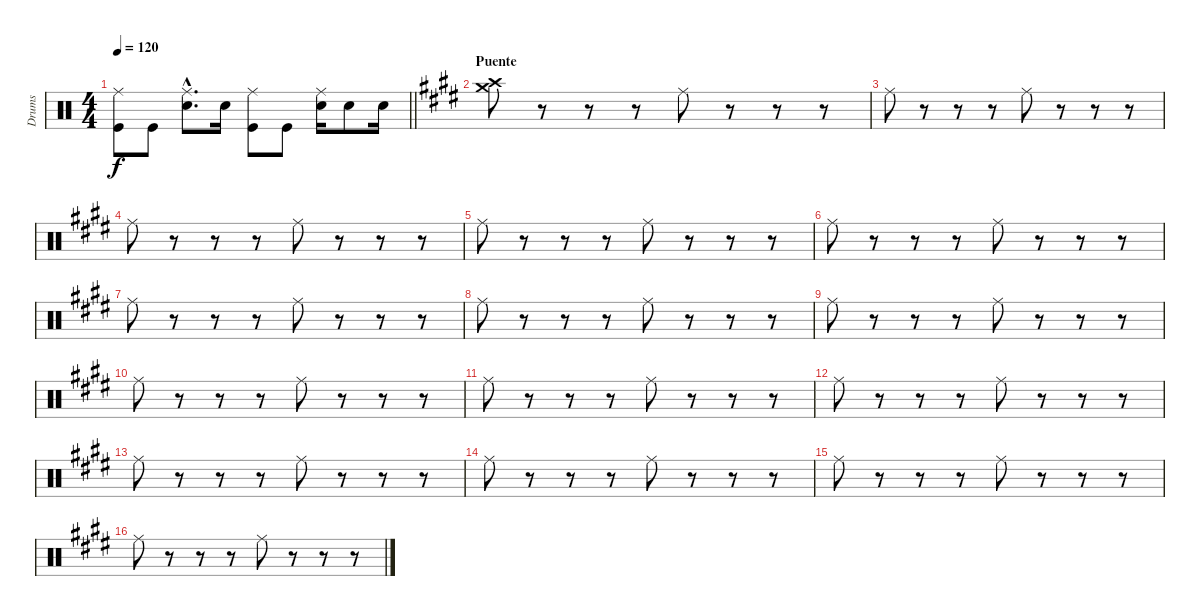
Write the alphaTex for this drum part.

\track ("Drums" "Drums") {instrument percussion}
\staff {score}
\articulation defaults
\ts (4 4)
\tempo 120
\clef neutral
\barLineRight lightlight
\ks c
("Ride (middle)" "Kick (hit)").8{dy f} "Kick (hit)".8 ("Ride (middle)"{hac} "Electric Snare (hit)"{hac}).8{d} "Electric Snare (hit)".16 ("Ride (middle)" "Kick (hit)").8 "Kick (hit)".8 ("Ride (middle)" "Electric Snare (hit)").16 "Electric Snare (hit)".8 "Electric Snare (hit)".16 |
\section ("" "Puente")
\ks e
("Crash medium (hit)" "Crash high (hit)").8 r.8 r.8 r.8 "Ride (middle)".8 r.8 r.8 r.8 |
"Ride (middle)".8 r.8 r.8 r.8 "Ride (middle)".8 r.8 r.8 r.8 |
"Ride (middle)".8 r.8 r.8 r.8 "Ride (middle)".8 r.8 r.8 r.8 |
"Ride (middle)".8 r.8 r.8 r.8 "Ride (middle)".8 r.8 r.8 r.8 |
"Ride (middle)".8 r.8 r.8 r.8 "Ride (middle)".8 r.8 r.8 r.8 |
"Ride (middle)".8 r.8 r.8 r.8 "Ride (middle)".8 r.8 r.8 r.8 |
"Ride (middle)".8 r.8 r.8 r.8 "Ride (middle)".8 r.8 r.8 r.8 |
"Ride (middle)".8 r.8 r.8 r.8 "Ride (middle)".8 r.8 r.8 r.8 |
"Ride (middle)".8 r.8 r.8 r.8 "Ride (middle)".8 r.8 r.8 r.8 |
"Ride (middle)".8 r.8 r.8 r.8 "Ride (middle)".8 r.8 r.8 r.8 |
"Ride (middle)".8 r.8 r.8 r.8 "Ride (middle)".8 r.8 r.8 r.8 |
"Ride (middle)".8 r.8 r.8 r.8 "Ride (middle)".8 r.8 r.8 r.8 |
"Ride (middle)".8 r.8 r.8 r.8 "Ride (middle)".8 r.8 r.8 r.8 |
"Ride (middle)".8 r.8 r.8 r.8 "Ride (middle)".8 r.8 r.8 r.8 |
"Ride (middle)".8 r.8 r.8 r.8 "Ride (middle)".8 r.8 r.8 r.8
